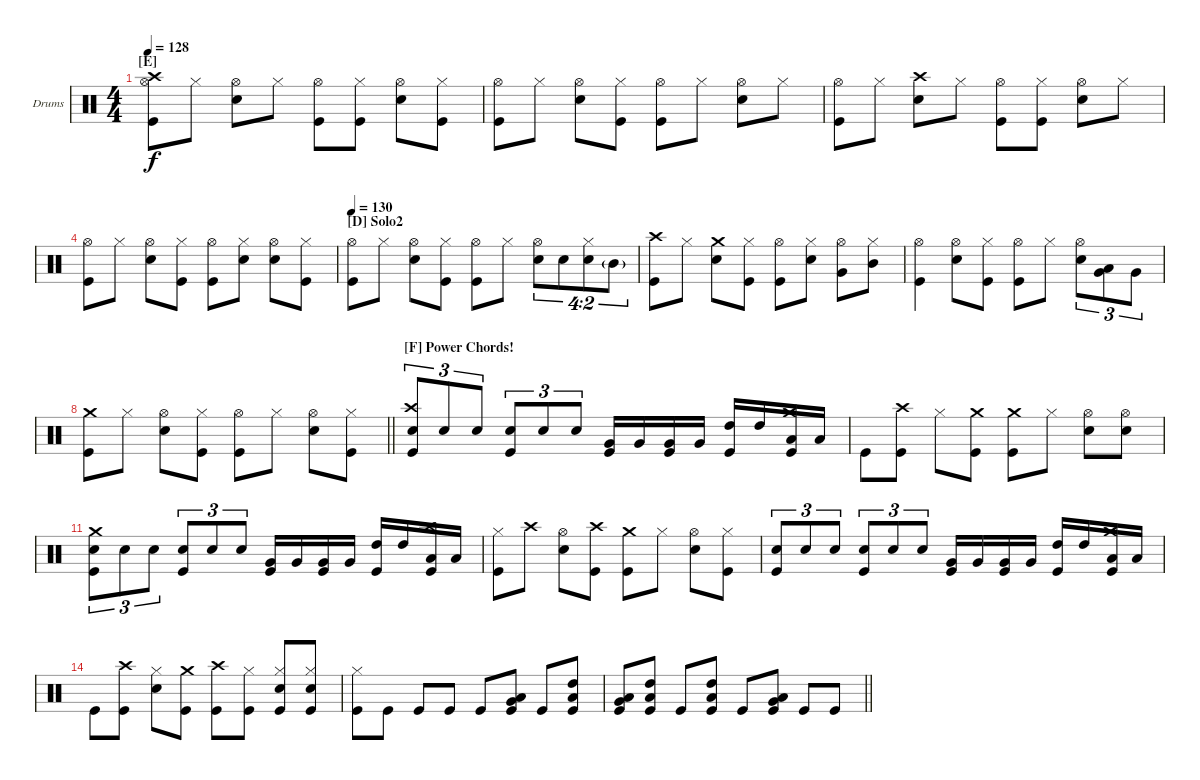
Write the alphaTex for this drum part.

\bracketExtendMode nobrackets
\firstSystemTrackNameOrientation horizontal
\otherSystemsTrackNameOrientation horizontal
\defaultBarNumberDisplay FirstOfSystem
\track ("Drumkit" "Drums") {instrument percussion}
\staff {score}
\articulation defaults
\ts (4 4)
\section ("E" "")
\tempo 128
\clef neutral
\scale
0.319386
\ks c
("Kick (hit)" "Hi-Hat (open)" "Crash high (hit)").8{dy f} "Hi-Hat (closed)".8 ("Snare (hit) 2" "Hi-Hat (open)").8 "Hi-Hat (closed)".8 ("Hi-Hat (open)" "Kick (hit)").8 ("Hi-Hat (closed)" "Kick (hit)").8 ("Hi-Hat (open)" "Snare (hit) 2").8 ("Hi-Hat (closed)" "Kick (hit)").8 |
\scale
0.223152 ("Hi-Hat (open)" "Kick (hit)").8 "Hi-Hat (closed)".8 ("Hi-Hat (open)" "Snare (hit) 2").8 ("Hi-Hat (closed)" "Kick (hit)").8 ("Hi-Hat (open)" "Kick (hit)").8 "Hi-Hat (closed)".8 ("Hi-Hat (open)" "Snare (hit) 2").8 "Hi-Hat (closed)".8 |
\scale
0.333333
\scale
0.253991 ("Kick (hit)" "Hi-Hat (open)").8 "Hi-Hat (closed)".8 ("Crash high (hit)" "Snare (hit) 2").8 "Hi-Hat (closed)".8 ("Hi-Hat (open)" "Kick (hit)").8 ("Hi-Hat (closed)" "Kick (hit)").8 ("Hi-Hat (open)" "Snare (hit) 2").8 "Hi-Hat (closed)".8 |
\scale
0.357654
\scale
0.281567 ("Hi-Hat (open)" "Kick (hit)").8 "Hi-Hat (closed)".8 ("Hi-Hat (open)" "Snare (hit) 2").8 ("Hi-Hat (closed)" "Kick (hit)").8 ("Hi-Hat (open)" "Kick (hit)").8 ("Hi-Hat (closed)" "Snare (hit) 2").8 ("Hi-Hat (open)" "Snare (hit) 2").8 ("Hi-Hat (closed)" "Kick (hit)").8 |
\section ("D" "Solo2")
\scale
0.30922
\tempo 130
\scale
0.232221 ("Kick (hit)" "Hi-Hat (open)").8 "Hi-Hat (closed)".8 ("Snare (hit) 2" "Hi-Hat (open)").8 ("Hi-Hat (closed)" "Kick (hit)").8 ("Hi-Hat (open)" "Kick (hit)").8 "Hi-Hat (closed)".8 ("Snare (hit) 2" "Hi-Hat (open)").8{tu (4 2)} "Snare (hit) 2".8{tu (4 2)} ("Snare (hit) 2" "Hi-Hat (closed)").8{tu (4 2)} "Mid Tom (hit)"{g}.8{tu (4 2)} |
\scale
0.232221 ("Kick (hit)" "Crash high (hit)").8 "Hi-Hat (closed)".8 ("Snare (hit) 2" "Crash medium (hit)").8 ("Hi-Hat (closed)" "Kick (hit)").8 ("Hi-Hat (open)" "Kick (hit)").8 ("Hi-Hat (closed)" "Snare (hit) 2").8 ("Hi-Hat (open)" "Very Low Tom (hit)").8 ("Hi-Hat (closed)" "Mid Tom (hit)").8 |
\scale
0.234949 ("Kick (hit)" "Hi-Hat (open)").4 ("Hi-Hat (open)" "Snare (hit) 2").8 ("Hi-Hat (closed)" "Kick (hit)").8 ("Hi-Hat (open)" "Kick (hit)").8 "Hi-Hat (closed)".8 ("Hi-Hat (open)" "Snare (hit) 2").8{tu (3 2)} ("Very Low Tom (hit)" "Low Tom (hit)").8{tu (3 2)} "Very Low Tom (hit)".8{tu (3 2)} |
\scale
0.234949
\barLineRight lightlight
("Kick (hit)" "Crash medium (hit)").8 "Hi-Hat (closed)".8 ("Snare (hit) 2" "Hi-Hat (open)").8 ("Hi-Hat (closed)" "Kick (hit)").8 ("Hi-Hat (open)" "Kick (hit)").8 "Hi-Hat (closed)".8 ("Hi-Hat (open)" "Snare (hit) 2").8 ("Hi-Hat (closed)" "Kick (hit)").8 |
\section ("F" "Power Chords!")
\scale
0.295154 ("Snare (hit) 2" "Kick (hit)" "Crash high (hit)").8{tu (3 2)} "Snare (hit) 2".8{tu (3 2)} "Snare (hit) 2".8{tu (3 2)} ("Snare (hit) 2" "Kick (hit)").8{tu (3 2)} "Snare (hit) 2".8{tu (3 2)} "Snare (hit) 2".8{tu (3 2)} ("Very Low Tom (hit)" "Kick (hit)").16 "Very Low Tom (hit)".16 ("Very Low Tom (hit)" "Kick (hit)").16 "Very Low Tom (hit)".16 ("High Tom (hit)" "Kick (hit)").16 "High Tom (hit)".16 ("Low Tom (hit)" "Kick (hit)" "Crash medium (hit)").16 "Low Tom (hit)".16 |
\scale
0.234949 "Kick (hit)".8 ("Kick (hit)" "Crash high (hit)").8 "Hi-Hat (closed)".8 ("Kick (hit)" "Crash medium (hit)").8 ("Kick (hit)" "Crash medium (hit)").8 "Hi-Hat (closed)".8 ("Snare (hit) 2" "Hi-Hat (open)").8 ("Snare (hit) 2" "Hi-Hat (open)").8 |
\scale
0.229927 ("Snare (hit) 2" "Kick (hit)" "Crash medium (hit)").8{tu (3 2)} "Snare (hit) 2".8{tu (3 2)} "Snare (hit) 2".8{tu (3 2)} ("Snare (hit) 2" "Kick (hit)").8{tu (3 2)} "Snare (hit) 2".8{tu (3 2)} "Snare (hit) 2".8{tu (3 2)} ("Very Low Tom (hit)" "Kick (hit)").16 "Very Low Tom (hit)".16 ("Very Low Tom (hit)" "Kick (hit)").16 "Very Low Tom (hit)".16 ("High Tom (hit)" "Kick (hit)").16 "High Tom (hit)".16 ("Low Tom (hit)" "Kick (hit)" "Crash high (hit)").16 "Low Tom (hit)".16 |
\scale
0.194647 ("Kick (hit)" "Hi-Hat (closed)").8 "Crash high (hit)".8 ("Snare (hit) 2" "Hi-Hat (open)").8 ("Kick (hit)" "Crash high (hit)").8 ("Kick (hit)" "Crash medium (hit)").8 "Hi-Hat (closed)".8 ("Snare (hit) 2" "Hi-Hat (open)").8 ("Kick (hit)" "Hi-Hat (closed)").8 |
\scale
0.36618 ("Snare (hit) 2" "Kick (hit)").8{tu (3 2)} "Snare (hit) 2".8{tu (3 2)} "Snare (hit) 2".8{tu (3 2)} ("Snare (hit) 2" "Kick (hit)").8{tu (3 2)} "Snare (hit) 2".8{tu (3 2)} "Snare (hit) 2".8{tu (3 2)} ("Very Low Tom (hit)" "Kick (hit)").16 "Very Low Tom (hit)".16 ("Very Low Tom (hit)" "Kick (hit)").16 "Very Low Tom (hit)".16 ("High Tom (hit)" "Kick (hit)").16 "High Tom (hit)".16 ("Low Tom (hit)" "Kick (hit)" "Crash medium (hit)").16 "Low Tom (hit)".16 |
\scale
0.209246 "Kick (hit)".8 ("Kick (hit)" "Crash high (hit)").8 ("Hi-Hat (closed)" "Snare (hit) 2").8 ("Kick (hit)" "Crash medium (hit)").8 ("Kick (hit)" "Crash high (hit)").8 ("Kick (hit)" "Hi-Hat (closed)").8 ("Snare (hit) 2" "Hi-Hat (closed)" "Kick (hit)").8 ("Snare (hit) 2" "Kick (hit)" "Hi-Hat (closed)").8 |
\scale
0.318182 ("Kick (hit)" "Hi-Hat (closed)").8 "Kick (hit)".8 "Kick (hit)".8 "Kick (hit)".8 "Kick (hit)".8 ("Very Low Tom (hit)" "Low Tom (hit)" "Kick (hit)").8 "Kick (hit)".8 ("High Tom (hit)" "Low Tom (hit)" "Kick (hit)").8 |
\scale
0.181818
\barLineRight lightlight
("Very Low Tom (hit)" "Low Tom (hit)" "Kick (hit)").8 ("High Tom (hit)" "Low Tom (hit)" "Kick (hit)").8 "Kick (hit)".8 ("High Tom (hit)" "Low Tom (hit)" "Kick (hit)").8 "Kick (hit)".8 ("Very Low Tom (hit)" "Low Tom (hit)" "Kick (hit)").8 "Kick (hit)".8 "Kick (hit)".8
